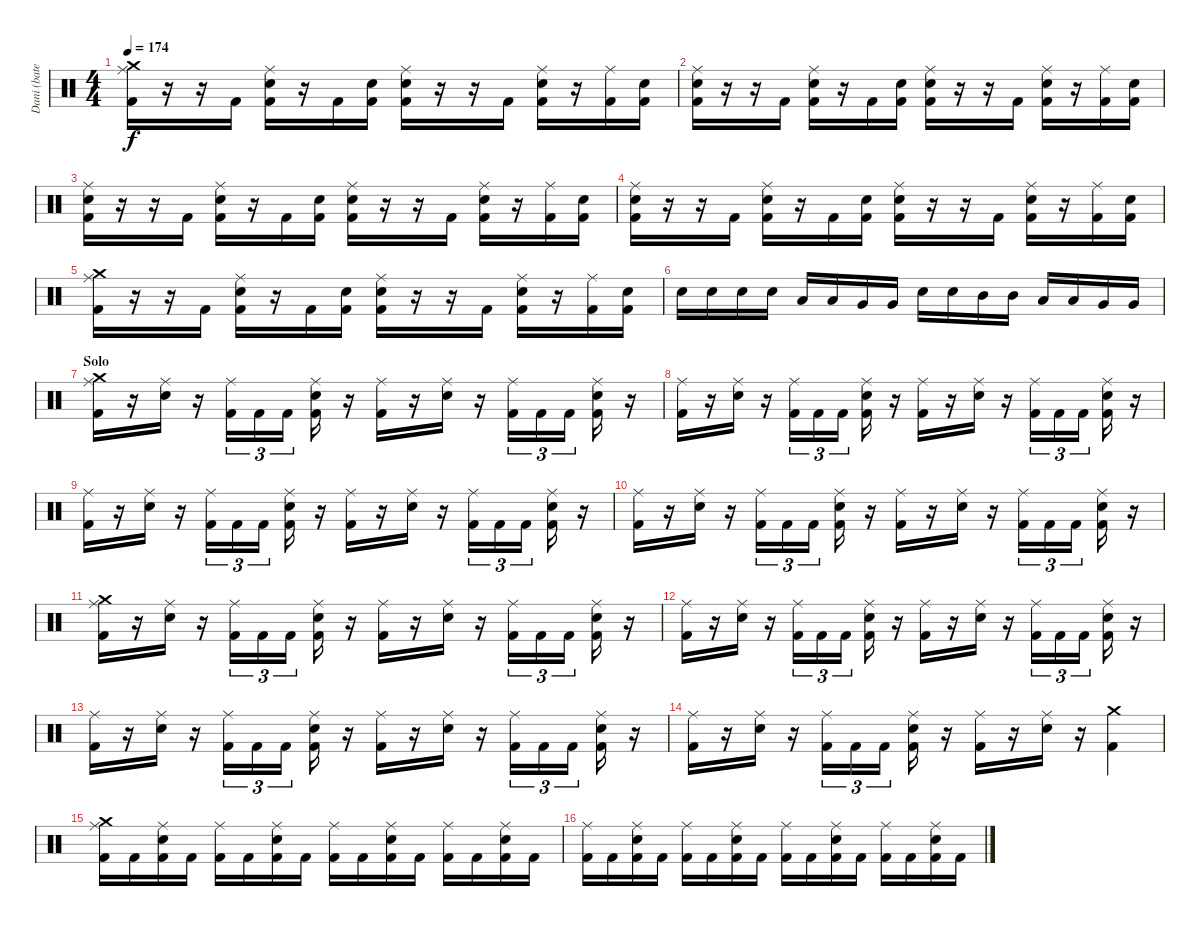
\track ("Dani (batería)" "Dani (bate") {instrument percussion}
\staff {score}
\articulation defaults
\ts (4 4)
\tempo 174
\clef neutral
\ks c
("Crash medium (hit)" "Ride (middle)" "Kick (hit) 2").16{dy f} r.16 r.16 "Kick (hit) 2".16 ("Ride (middle)" "Electric Snare (hit)" "Kick (hit) 2").16 r.16 "Kick (hit) 2".16 ("Electric Snare (hit)" "Kick (hit) 2").16 ("Ride (middle)" "Electric Snare (hit)" "Kick (hit) 2").16 r.16 r.16 "Kick (hit) 2".16 ("Ride (middle)" "Electric Snare (hit)" "Kick (hit) 2").16 r.16 ("Ride (middle)" "Kick (hit) 2").16 ("Electric Snare (hit)" "Kick (hit) 2").16 |
("Ride (middle)" "Electric Snare (hit)" "Kick (hit) 2").16 r.16 r.16 "Kick (hit) 2".16 ("Ride (middle)" "Electric Snare (hit)" "Kick (hit) 2").16 r.16 "Kick (hit) 2".16 ("Electric Snare (hit)" "Kick (hit) 2").16 ("Ride (middle)" "Electric Snare (hit)" "Kick (hit) 2").16 r.16 r.16 "Kick (hit) 2".16 ("Ride (middle)" "Electric Snare (hit)" "Kick (hit) 2").16 r.16 ("Ride (middle)" "Kick (hit) 2").16 ("Electric Snare (hit)" "Kick (hit) 2").16 |
("Ride (middle)" "Electric Snare (hit)" "Kick (hit) 2").16 r.16 r.16 "Kick (hit) 2".16 ("Ride (middle)" "Electric Snare (hit)" "Kick (hit) 2").16 r.16 "Kick (hit) 2".16 ("Electric Snare (hit)" "Kick (hit) 2").16 ("Ride (middle)" "Electric Snare (hit)" "Kick (hit) 2").16 r.16 r.16 "Kick (hit) 2".16 ("Ride (middle)" "Electric Snare (hit)" "Kick (hit) 2").16 r.16 ("Ride (middle)" "Kick (hit) 2").16 ("Electric Snare (hit)" "Kick (hit) 2").16 |
("Ride (middle)" "Electric Snare (hit)" "Kick (hit) 2").16 r.16 r.16 "Kick (hit) 2".16 ("Ride (middle)" "Electric Snare (hit)" "Kick (hit) 2").16 r.16 "Kick (hit) 2".16 ("Electric Snare (hit)" "Kick (hit) 2").16 ("Ride (middle)" "Electric Snare (hit)" "Kick (hit) 2").16 r.16 r.16 "Kick (hit) 2".16 ("Ride (middle)" "Electric Snare (hit)" "Kick (hit) 2").16 r.16 ("Ride (middle)" "Kick (hit) 2").16 ("Electric Snare (hit)" "Kick (hit) 2").16 |
("Crash medium (hit)" "Ride (middle)" "Kick (hit) 2").16 r.16 r.16 "Kick (hit) 2".16 ("Ride (middle)" "Electric Snare (hit)" "Kick (hit) 2").16 r.16 "Kick (hit) 2".16 ("Electric Snare (hit)" "Kick (hit) 2").16 ("Ride (middle)" "Electric Snare (hit)" "Kick (hit) 2").16 r.16 r.16 "Kick (hit) 2".16 ("Ride (middle)" "Electric Snare (hit)" "Kick (hit) 2").16 r.16 ("Ride (middle)" "Kick (hit) 2").16 ("Electric Snare (hit)" "Kick (hit) 2").16 |
"Electric Snare (hit)".16 "Electric Snare (hit)".16 "Electric Snare (hit)".16 "Electric Snare (hit)".16 "Low Tom (hit)".16 "Low Tom (hit)".16 "Very Low Tom (hit)".16 "Very Low Tom (hit)".16 "Electric Snare (hit)".16 "Electric Snare (hit)".16 "Mid Tom (hit)".16 "Mid Tom (hit)".16 "Low Tom (hit)".16 "Low Tom (hit)".16 "Very Low Tom (hit)".16 "Very Low Tom (hit)".16 |
\section ("" "Solo")
("Crash medium (hit)" "Ride (middle)" "Kick (hit) 2").16 r.16 ("Ride (middle)" "Electric Snare (hit)").16 r.16 ("Ride (middle)" "Kick (hit) 2").16{tu (3 2)} "Kick (hit) 2".16{tu (3 2)} "Kick (hit) 2".16{tu (3 2)} ("Ride (middle)" "Electric Snare (hit)" "Kick (hit) 2").16 r.16 ("Ride (middle)" "Kick (hit) 2").16 r.16 ("Ride (middle)" "Electric Snare (hit)").16 r.16 ("Ride (middle)" "Kick (hit) 2").16{tu (3 2)} "Kick (hit) 2".16{tu (3 2)} "Kick (hit) 2".16{tu (3 2)} ("Ride (middle)" "Electric Snare (hit)" "Kick (hit) 2").16 r.16 |
("Ride (middle)" "Kick (hit) 2").16 r.16 ("Ride (middle)" "Electric Snare (hit)").16 r.16 ("Ride (middle)" "Kick (hit) 2").16{tu (3 2)} "Kick (hit) 2".16{tu (3 2)} "Kick (hit) 2".16{tu (3 2)} ("Ride (middle)" "Electric Snare (hit)" "Kick (hit) 2").16 r.16 ("Ride (middle)" "Kick (hit) 2").16 r.16 ("Ride (middle)" "Electric Snare (hit)").16 r.16 ("Ride (middle)" "Kick (hit) 2").16{tu (3 2)} "Kick (hit) 2".16{tu (3 2)} "Kick (hit) 2".16{tu (3 2)} ("Ride (middle)" "Electric Snare (hit)" "Kick (hit) 2").16 r.16 |
("Ride (middle)" "Kick (hit) 2").16 r.16 ("Ride (middle)" "Electric Snare (hit)").16 r.16 ("Ride (middle)" "Kick (hit) 2").16{tu (3 2)} "Kick (hit) 2".16{tu (3 2)} "Kick (hit) 2".16{tu (3 2)} ("Ride (middle)" "Electric Snare (hit)" "Kick (hit) 2").16 r.16 ("Ride (middle)" "Kick (hit) 2").16 r.16 ("Ride (middle)" "Electric Snare (hit)").16 r.16 ("Ride (middle)" "Kick (hit) 2").16{tu (3 2)} "Kick (hit) 2".16{tu (3 2)} "Kick (hit) 2".16{tu (3 2)} ("Ride (middle)" "Electric Snare (hit)" "Kick (hit) 2").16 r.16 |
("Ride (middle)" "Kick (hit) 2").16 r.16 ("Ride (middle)" "Electric Snare (hit)").16 r.16 ("Ride (middle)" "Kick (hit) 2").16{tu (3 2)} "Kick (hit) 2".16{tu (3 2)} "Kick (hit) 2".16{tu (3 2)} ("Ride (middle)" "Electric Snare (hit)" "Kick (hit) 2").16 r.16 ("Ride (middle)" "Kick (hit) 2").16 r.16 ("Ride (middle)" "Electric Snare (hit)").16 r.16 ("Ride (middle)" "Kick (hit) 2").16{tu (3 2)} "Kick (hit) 2".16{tu (3 2)} "Kick (hit) 2".16{tu (3 2)} ("Ride (middle)" "Electric Snare (hit)" "Kick (hit) 2").16 r.16 |
("Crash medium (hit)" "Ride (middle)" "Kick (hit) 2").16 r.16 ("Ride (middle)" "Electric Snare (hit)").16 r.16 ("Ride (middle)" "Kick (hit) 2").16{tu (3 2)} "Kick (hit) 2".16{tu (3 2)} "Kick (hit) 2".16{tu (3 2)} ("Ride (middle)" "Electric Snare (hit)" "Kick (hit) 2").16 r.16 ("Ride (middle)" "Kick (hit) 2").16 r.16 ("Ride (middle)" "Electric Snare (hit)").16 r.16 ("Ride (middle)" "Kick (hit) 2").16{tu (3 2)} "Kick (hit) 2".16{tu (3 2)} "Kick (hit) 2".16{tu (3 2)} ("Ride (middle)" "Electric Snare (hit)" "Kick (hit) 2").16 r.16 |
("Ride (middle)" "Kick (hit) 2").16 r.16 ("Ride (middle)" "Electric Snare (hit)").16 r.16 ("Ride (middle)" "Kick (hit) 2").16{tu (3 2)} "Kick (hit) 2".16{tu (3 2)} "Kick (hit) 2".16{tu (3 2)} ("Ride (middle)" "Electric Snare (hit)" "Kick (hit) 2").16 r.16 ("Ride (middle)" "Kick (hit) 2").16 r.16 ("Ride (middle)" "Electric Snare (hit)").16 r.16 ("Ride (middle)" "Kick (hit) 2").16{tu (3 2)} "Kick (hit) 2".16{tu (3 2)} "Kick (hit) 2".16{tu (3 2)} ("Ride (middle)" "Electric Snare (hit)" "Kick (hit) 2").16 r.16 |
("Ride (middle)" "Kick (hit) 2").16 r.16 ("Ride (middle)" "Electric Snare (hit)").16 r.16 ("Ride (middle)" "Kick (hit) 2").16{tu (3 2)} "Kick (hit) 2".16{tu (3 2)} "Kick (hit) 2".16{tu (3 2)} ("Ride (middle)" "Electric Snare (hit)" "Kick (hit) 2").16 r.16 ("Ride (middle)" "Kick (hit) 2").16 r.16 ("Ride (middle)" "Electric Snare (hit)").16 r.16 ("Ride (middle)" "Kick (hit) 2").16{tu (3 2)} "Kick (hit) 2".16{tu (3 2)} "Kick (hit) 2".16{tu (3 2)} ("Ride (middle)" "Electric Snare (hit)" "Kick (hit) 2").16 r.16 |
("Ride (middle)" "Kick (hit) 2").16 r.16 ("Ride (middle)" "Electric Snare (hit)").16 r.16 ("Ride (middle)" "Kick (hit) 2").16{tu (3 2)} "Kick (hit) 2".16{tu (3 2)} "Kick (hit) 2".16{tu (3 2)} ("Ride (middle)" "Electric Snare (hit)" "Kick (hit) 2").16 r.16 ("Ride (middle)" "Kick (hit) 2").16 r.16 ("Ride (middle)" "Electric Snare (hit)").16 r.16 ("Crash medium (hit)" "Kick (hit) 2").4 |
("Crash medium (hit)" "Ride (middle)" "Kick (hit) 2").16 "Kick (hit) 2".16 ("Ride (middle)" "Electric Snare (hit)" "Kick (hit) 2").16 "Kick (hit) 2".16 ("Ride (middle)" "Kick (hit) 2").16 "Kick (hit) 2".16 ("Ride (middle)" "Electric Snare (hit)" "Kick (hit) 2").16 "Kick (hit) 2".16 ("Ride (middle)" "Kick (hit) 2").16 "Kick (hit) 2".16 ("Ride (middle)" "Electric Snare (hit)" "Kick (hit) 2").16 "Kick (hit) 2".16 ("Ride (middle)" "Kick (hit) 2").16 "Kick (hit) 2".16 ("Ride (middle)" "Electric Snare (hit)" "Kick (hit) 2").16 "Kick (hit) 2".16 |
("Ride (middle)" "Kick (hit) 2").16 "Kick (hit) 2".16 ("Ride (middle)" "Electric Snare (hit)" "Kick (hit) 2").16 "Kick (hit) 2".16 ("Ride (middle)" "Kick (hit) 2").16 "Kick (hit) 2".16 ("Ride (middle)" "Electric Snare (hit)" "Kick (hit) 2").16 "Kick (hit) 2".16 ("Ride (middle)" "Kick (hit) 2").16 "Kick (hit) 2".16 ("Ride (middle)" "Electric Snare (hit)" "Kick (hit) 2").16 "Kick (hit) 2".16 ("Ride (middle)" "Kick (hit) 2").16 "Kick (hit) 2".16 ("Ride (middle)" "Electric Snare (hit)" "Kick (hit) 2").16 "Kick (hit) 2".16
